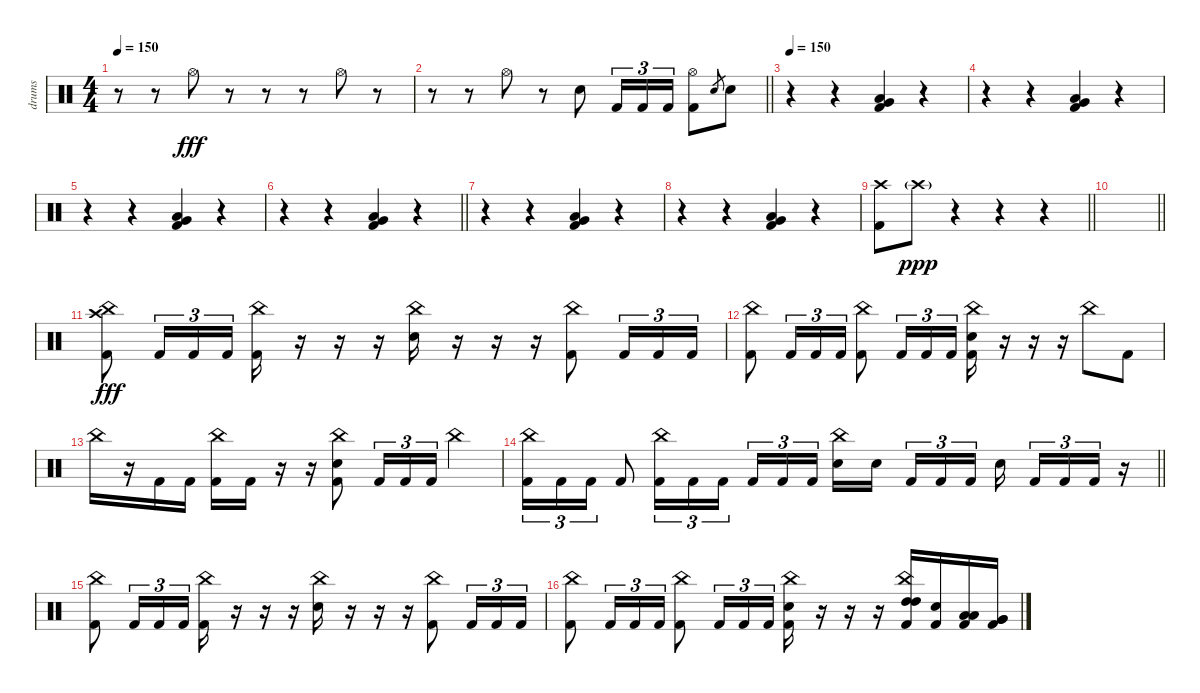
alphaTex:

\track ("drums" "drums") {instrument percussion}
\staff {score}
\articulation defaults
\ts (4 4)
\tempo 150
\clef neutral
\ks c
r.8{dy fff} r.8 "Hi-Hat (open)".8 r.8 r.8 r.8 "Hi-Hat (open)".8 r.8 |
\barLineRight lightlight
r.8 r.8 "Hi-Hat (open)".8 r.8 "Electric Snare (hit)".8 "Kick (hit) 2".16{tu (3 2)} "Kick (hit) 2".16{tu (3 2)} "Kick (hit) 2".16{tu (3 2)} ("Hi-Hat (open)" "Kick (hit) 2").8 "Electric Snare (hit)".8{gr} "Electric Snare (hit)".8 |
\section ("" "")
\tempo 150
r.4 r.4 ("Very Low Tom (hit)" "Low Floor Tom (hit)" "Kick (hit) 2").4 r.4 |
r.4 r.4 ("Very Low Tom (hit)" "Low Floor Tom (hit)" "Kick (hit) 2").4 r.4 |
r.4 r.4 ("Very Low Tom (hit)" "Low Floor Tom (hit)" "Kick (hit) 2").4 r.4 |
\barLineRight lightlight
r.4 r.4 ("Very Low Tom (hit)" "Low Floor Tom (hit)" "Kick (hit) 2").4 r.4 |
r.4 r.4 ("Very Low Tom (hit)" "Low Floor Tom (hit)" "Kick (hit) 2").4 r.4 |
r.4 r.4 ("Very Low Tom (hit)" "Low Floor Tom (hit)" "Kick (hit) 2").4 r.4 |
\barLineRight lightlight
("Crash high (hit)" "Kick (hit) 2").8 "Crash high (hit)"{g}.8{dy ppp} r.4 r.4 r.4 |
\barLineRight lightlight
|
\section ("" "")
("China (hit)" "Crash high (hit)" "Kick (hit) 2").8{dy fff} "Kick (hit) 2".16{tu (3 2)} "Kick (hit) 2".16{tu (3 2)} "Kick (hit) 2".16{tu (3 2)} ("China (hit)" "Kick (hit) 2").16 r.16 r.16 r.16 ("China (hit)" "Electric Snare (hit)").16 r.16 r.16 r.16 ("China (hit)" "Kick (hit) 2").8 "Kick (hit) 2".16{tu (3 2)} "Kick (hit) 2".16{tu (3 2)} "Kick (hit) 2".16{tu (3 2)} |
("China (hit)" "Kick (hit) 2").8 "Kick (hit) 2".16{tu (3 2)} "Kick (hit) 2".16{tu (3 2)} "Kick (hit) 2".16{tu (3 2)} ("China (hit)" "Kick (hit) 2").8 "Kick (hit) 2".16{tu (3 2)} "Kick (hit) 2".16{tu (3 2)} "Kick (hit) 2".16{tu (3 2)} ("China (hit)" "Electric Snare (hit)" "Kick (hit) 2").16 r.16 r.16 r.16 "China (hit)".8 "Kick (hit) 2".8 |
"China (hit)".16 r.16 "Kick (hit) 2".16 "Kick (hit) 2".16 ("China (hit)" "Kick (hit) 2").16 "Kick (hit) 2".16 r.16 r.16 ("China (hit)" "Electric Snare (hit)" "Kick (hit) 2").8 "Kick (hit) 2".16{tu (3 2)} "Kick (hit) 2".16{tu (3 2)} "Kick (hit) 2".16{tu (3 2)} "China (hit)".4 |
\barLineRight lightlight
("China (hit)" "Kick (hit) 2").16{tu (3 2)} "Kick (hit) 2".16{tu (3 2)} "Kick (hit) 2".16{tu (3 2)} "Kick (hit) 2".8 ("China (hit)" "Kick (hit) 2").16{tu (3 2)} "Kick (hit) 2".16{tu (3 2)} "Kick (hit) 2".16{tu (3 2) beam splitsecondary} "Kick (hit) 2".16{tu (3 2)} "Kick (hit) 2".16{tu (3 2)} "Kick (hit) 2".16{tu (3 2)} ("China (hit)" "Electric Snare (hit)").16 "Electric Snare (hit)".16{beam splitsecondary} "Kick (hit) 2".16{tu (3 2)} "Kick (hit) 2".16{tu (3 2)} "Kick (hit) 2".16{tu (3 2)} "Electric Snare (hit)".16{beam splitsecondary} "Kick (hit) 2".16{tu (3 2)} "Kick (hit) 2".16{tu (3 2)} "Kick (hit) 2".16{tu (3 2)} r.16 |
("China (hit)" "Kick (hit) 2").8 "Kick (hit) 2".16{tu (3 2)} "Kick (hit) 2".16{tu (3 2)} "Kick (hit) 2".16{tu (3 2)} ("China (hit)" "Kick (hit) 2").16 r.16 r.16 r.16 ("China (hit)" "Electric Snare (hit)").16 r.16 r.16 r.16 ("China (hit)" "Kick (hit) 2").8 "Kick (hit) 2".16{tu (3 2)} "Kick (hit) 2".16{tu (3 2)} "Kick (hit) 2".16{tu (3 2)} |
("China (hit)" "Kick (hit) 2").8 "Kick (hit) 2".16{tu (3 2)} "Kick (hit) 2".16{tu (3 2)} "Kick (hit) 2".16{tu (3 2)} ("China (hit)" "Kick (hit) 2").8 "Kick (hit) 2".16{tu (3 2)} "Kick (hit) 2".16{tu (3 2)} "Kick (hit) 2".16{tu (3 2)} ("China (hit)" "Electric Snare (hit)" "Kick (hit) 2").16 r.16 r.16 r.16 ("China (hit)" "High Tom (hit)" "High Tom (hit)" "Kick (hit) 2").16 ("Electric Snare (hit)" "Kick (hit) 2").16 ("Low Tom (hit)" "Low Tom (hit)" "Kick (hit) 2").16 ("Very Low Tom (hit)" "Very Low Tom (hit)" "Kick (hit) 2").16
